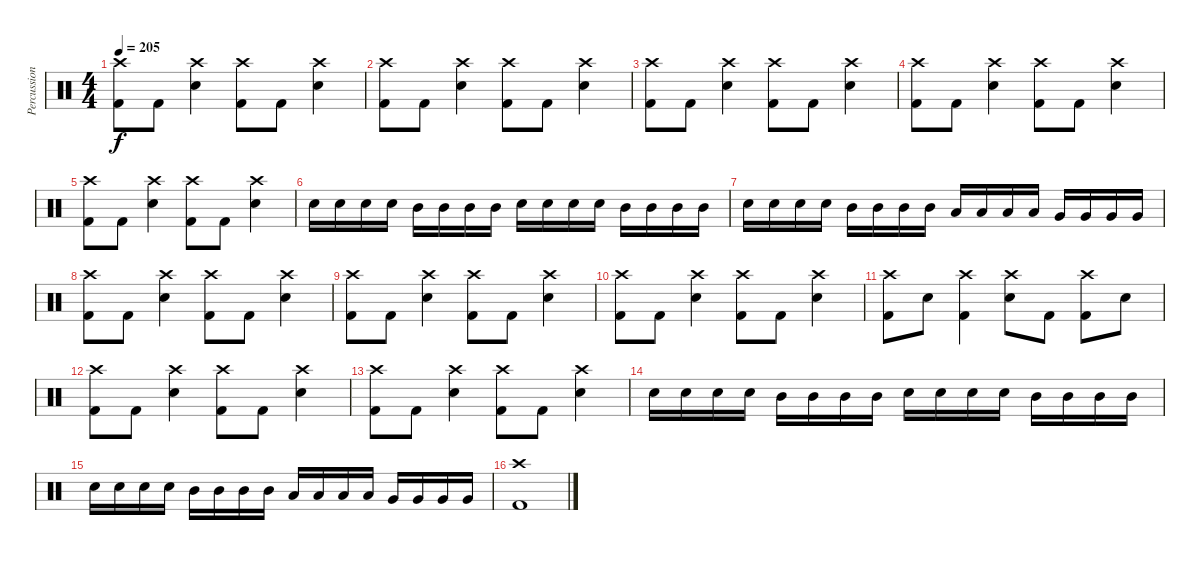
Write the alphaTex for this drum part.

\track ("Percussions" "Percussion") {instrument percussion}
\staff {score}
\articulation defaults
\ts (4 4)
\tempo 205
\clef neutral
\ks c
("Crash high (hit)" "Kick (hit) 2").8{dy f} "Kick (hit) 2".8 ("Crash high (hit)" "Snare (hit) 2").4 ("Crash high (hit)" "Kick (hit) 2").8 "Kick (hit) 2".8 ("Crash high (hit)" "Snare (hit) 2").4 |
("Crash high (hit)" "Kick (hit) 2").8 "Kick (hit) 2".8 ("Crash high (hit)" "Snare (hit) 2").4 ("Crash high (hit)" "Kick (hit) 2").8 "Kick (hit) 2".8 ("Crash high (hit)" "Snare (hit) 2").4 |
("Crash high (hit)" "Kick (hit) 2").8 "Kick (hit) 2".8 ("Crash high (hit)" "Snare (hit) 2").4 ("Crash high (hit)" "Kick (hit) 2").8 "Kick (hit) 2".8 ("Crash high (hit)" "Snare (hit) 2").4 |
("Crash high (hit)" "Kick (hit) 2").8 "Kick (hit) 2".8 ("Crash high (hit)" "Snare (hit) 2").4 ("Crash high (hit)" "Kick (hit) 2").8 "Kick (hit) 2".8 ("Crash high (hit)" "Snare (hit) 2").4 |
("Crash high (hit)" "Kick (hit) 2").8 "Kick (hit) 2".8 ("Crash high (hit)" "Snare (hit) 2").4 ("Crash high (hit)" "Kick (hit) 2").8 "Kick (hit) 2".8 ("Crash high (hit)" "Snare (hit) 2").4 |
"Snare (hit) 2".16 "Snare (hit) 2".16 "Snare (hit) 2".16 "Snare (hit) 2".16 "Mid Tom (hit)".16 "Mid Tom (hit)".16 "Mid Tom (hit)".16 "Mid Tom (hit)".16 "Snare (hit) 2".16 "Snare (hit) 2".16 "Snare (hit) 2".16 "Snare (hit) 2".16 "Mid Tom (hit)".16 "Mid Tom (hit)".16 "Mid Tom (hit)".16 "Mid Tom (hit)".16 |
"Snare (hit) 2".16 "Snare (hit) 2".16 "Snare (hit) 2".16 "Snare (hit) 2".16 "Mid Tom (hit)".16 "Mid Tom (hit)".16 "Mid Tom (hit)".16 "Mid Tom (hit)".16 "Low Tom (hit)".16 "Low Tom (hit)".16 "Low Tom (hit)".16 "Low Tom (hit)".16 "Very Low Tom (hit)".16 "Very Low Tom (hit)".16 "Very Low Tom (hit)".16 "Very Low Tom (hit)".16 |
("Crash high (hit)" "Kick (hit) 2").8 "Kick (hit) 2".8 ("Crash high (hit)" "Snare (hit) 2").4 ("Crash high (hit)" "Kick (hit) 2").8 "Kick (hit) 2".8 ("Crash high (hit)" "Snare (hit) 2").4 |
("Crash high (hit)" "Kick (hit) 2").8 "Kick (hit) 2".8 ("Crash high (hit)" "Snare (hit) 2").4 ("Crash high (hit)" "Kick (hit) 2").8 "Kick (hit) 2".8 ("Crash high (hit)" "Snare (hit) 2").4 |
("Crash high (hit)" "Kick (hit) 2").8 "Kick (hit) 2".8 ("Crash high (hit)" "Snare (hit) 2").4 ("Crash high (hit)" "Kick (hit) 2").8 "Kick (hit) 2".8 ("Crash high (hit)" "Snare (hit) 2").4 |
("Crash high (hit)" "Kick (hit) 2").8 "Snare (hit) 2".8 ("Crash high (hit)" "Kick (hit) 2").4 ("Crash high (hit)" "Snare (hit) 2").8 "Kick (hit) 2".8 ("Crash high (hit)" "Kick (hit) 2").8 "Snare (hit) 2".8 |
("Crash high (hit)" "Kick (hit) 2").8 "Kick (hit) 2".8 ("Crash high (hit)" "Snare (hit) 2").4 ("Crash high (hit)" "Kick (hit) 2").8 "Kick (hit) 2".8 ("Crash high (hit)" "Snare (hit) 2").4 |
("Crash high (hit)" "Kick (hit) 2").8 "Kick (hit) 2".8 ("Crash high (hit)" "Snare (hit) 2").4 ("Crash high (hit)" "Kick (hit) 2").8 "Kick (hit) 2".8 ("Crash high (hit)" "Snare (hit) 2").4 |
"Snare (hit) 2".16 "Snare (hit) 2".16 "Snare (hit) 2".16 "Snare (hit) 2".16 "Mid Tom (hit)".16 "Mid Tom (hit)".16 "Mid Tom (hit)".16 "Mid Tom (hit)".16 "Snare (hit) 2".16 "Snare (hit) 2".16 "Snare (hit) 2".16 "Snare (hit) 2".16 "Mid Tom (hit)".16 "Mid Tom (hit)".16 "Mid Tom (hit)".16 "Mid Tom (hit)".16 |
"Snare (hit) 2".16 "Snare (hit) 2".16 "Snare (hit) 2".16 "Snare (hit) 2".16 "Mid Tom (hit)".16 "Mid Tom (hit)".16 "Mid Tom (hit)".16 "Mid Tom (hit)".16 "Low Tom (hit)".16 "Low Tom (hit)".16 "Low Tom (hit)".16 "Low Tom (hit)".16 "Very Low Tom (hit)".16 "Very Low Tom (hit)".16 "Very Low Tom (hit)".16 "Very Low Tom (hit)".16 |
("Crash high (hit)" "Kick (hit) 2").1
